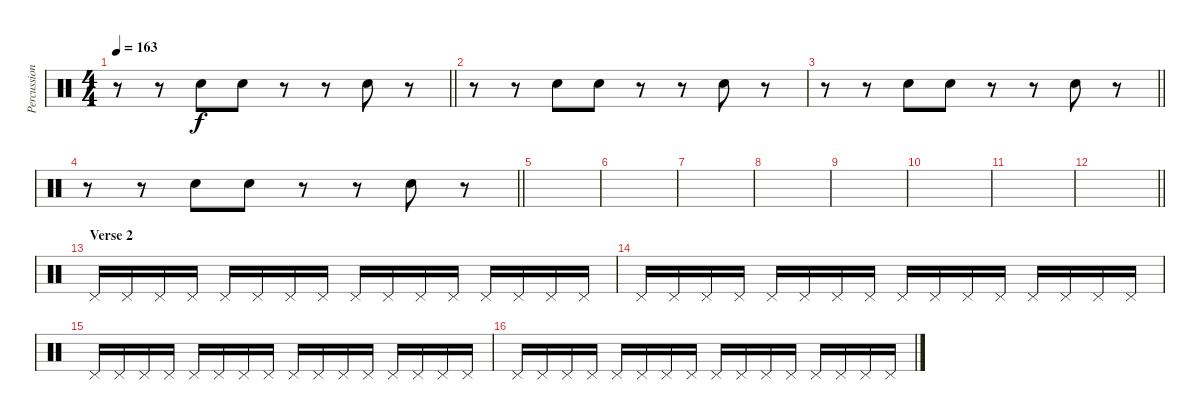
\track ("Percussion" "Percussion") {instrument percussion}
\staff {score}
\articulation defaults
\ts (4 4)
\tempo 163
\clef neutral
\barLineRight lightlight
\ks c
r.8{dy f} r.8 "Hand Clap (hit)".8 "Hand Clap (hit)".8 r.8 r.8 "Hand Clap (hit)".8 r.8 |
r.8 r.8 "Hand Clap (hit)".8 "Hand Clap (hit)".8 r.8 r.8 "Hand Clap (hit)".8 r.8 |
\barLineRight lightlight
r.8 r.8 "Hand Clap (hit)".8 "Hand Clap (hit)".8 r.8 r.8 "Hand Clap (hit)".8 r.8 |
\barLineRight lightlight
r.8 r.8 "Hand Clap (hit)".8 "Hand Clap (hit)".8 r.8 r.8 "Hand Clap (hit)".8 r.8 |
\section ("" "")
|
|
|
|
|
|
|
\barLineRight lightlight
|
\section ("" "Verse 2")
"Pedal Hi-Hat (hit)".16 "Pedal Hi-Hat (hit)".16 "Pedal Hi-Hat (hit)".16 "Pedal Hi-Hat (hit)".16 "Pedal Hi-Hat (hit)".16 "Pedal Hi-Hat (hit)".16 "Pedal Hi-Hat (hit)".16 "Pedal Hi-Hat (hit)".16 "Pedal Hi-Hat (hit)".16 "Pedal Hi-Hat (hit)".16 "Pedal Hi-Hat (hit)".16 "Pedal Hi-Hat (hit)".16 "Pedal Hi-Hat (hit)".16 "Pedal Hi-Hat (hit)".16 "Pedal Hi-Hat (hit)".16 "Pedal Hi-Hat (hit)".16 |
"Pedal Hi-Hat (hit)".16 "Pedal Hi-Hat (hit)".16 "Pedal Hi-Hat (hit)".16 "Pedal Hi-Hat (hit)".16 "Pedal Hi-Hat (hit)".16 "Pedal Hi-Hat (hit)".16 "Pedal Hi-Hat (hit)".16 "Pedal Hi-Hat (hit)".16 "Pedal Hi-Hat (hit)".16 "Pedal Hi-Hat (hit)".16 "Pedal Hi-Hat (hit)".16 "Pedal Hi-Hat (hit)".16 "Pedal Hi-Hat (hit)".16 "Pedal Hi-Hat (hit)".16 "Pedal Hi-Hat (hit)".16 "Pedal Hi-Hat (hit)".16 |
"Pedal Hi-Hat (hit)".16 "Pedal Hi-Hat (hit)".16 "Pedal Hi-Hat (hit)".16 "Pedal Hi-Hat (hit)".16 "Pedal Hi-Hat (hit)".16 "Pedal Hi-Hat (hit)".16 "Pedal Hi-Hat (hit)".16 "Pedal Hi-Hat (hit)".16 "Pedal Hi-Hat (hit)".16 "Pedal Hi-Hat (hit)".16 "Pedal Hi-Hat (hit)".16 "Pedal Hi-Hat (hit)".16 "Pedal Hi-Hat (hit)".16 "Pedal Hi-Hat (hit)".16 "Pedal Hi-Hat (hit)".16 "Pedal Hi-Hat (hit)".16 |
"Pedal Hi-Hat (hit)".16 "Pedal Hi-Hat (hit)".16 "Pedal Hi-Hat (hit)".16 "Pedal Hi-Hat (hit)".16 "Pedal Hi-Hat (hit)".16 "Pedal Hi-Hat (hit)".16 "Pedal Hi-Hat (hit)".16 "Pedal Hi-Hat (hit)".16 "Pedal Hi-Hat (hit)".16 "Pedal Hi-Hat (hit)".16 "Pedal Hi-Hat (hit)".16 "Pedal Hi-Hat (hit)".16 "Pedal Hi-Hat (hit)".16 "Pedal Hi-Hat (hit)".16 "Pedal Hi-Hat (hit)".16 "Pedal Hi-Hat (hit)".16
